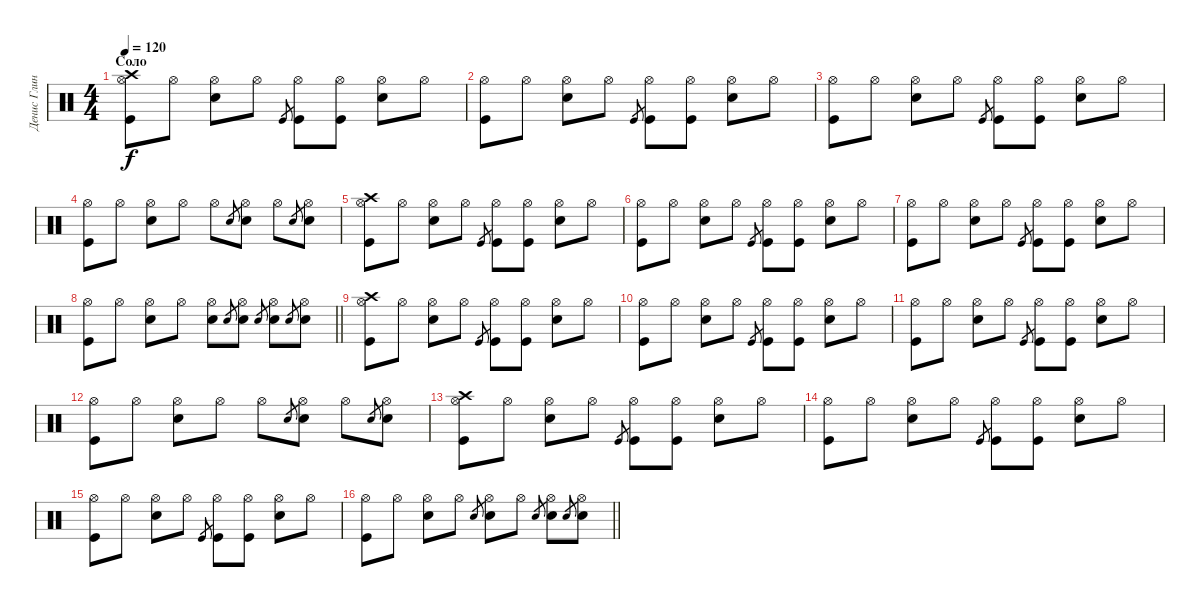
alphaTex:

\track ("Денис Глинин" "Денис Глин") {instrument percussion}
\staff {score}
\articulation defaults
\ts (4 4)
\section ("" "Соло")
\tempo 120
\clef neutral
\ks c
("Hi-Hat (open)" "Crash high (hit)" "Kick (hit)").8{dy f} "Hi-Hat (open)".8 ("Hi-Hat (open)" "Snare (hit) 2").8 "Hi-Hat (open)".8 "Kick (hit)".8{gr} ("Hi-Hat (open)" "Kick (hit)").8 ("Hi-Hat (open)" "Kick (hit)").8 ("Hi-Hat (open)" "Snare (hit) 2").8 "Hi-Hat (open)".8 |
("Hi-Hat (open)" "Kick (hit)").8 "Hi-Hat (open)".8 ("Hi-Hat (open)" "Snare (hit) 2").8 "Hi-Hat (open)".8 "Kick (hit)".8{gr} ("Hi-Hat (open)" "Kick (hit)").8 ("Hi-Hat (open)" "Kick (hit)").8 ("Hi-Hat (open)" "Snare (hit) 2").8 "Hi-Hat (open)".8 |
("Hi-Hat (open)" "Kick (hit)").8 "Hi-Hat (open)".8 ("Hi-Hat (open)" "Snare (hit) 2").8 "Hi-Hat (open)".8 "Kick (hit)".8{gr} ("Hi-Hat (open)" "Kick (hit)").8 ("Hi-Hat (open)" "Kick (hit)").8 ("Hi-Hat (open)" "Snare (hit) 2").8 "Hi-Hat (open)".8 |
("Hi-Hat (open)" "Kick (hit)").8 "Hi-Hat (open)".8 ("Hi-Hat (open)" "Snare (hit) 2").8 "Hi-Hat (open)".8 "Hi-Hat (open)".8 "Snare (hit) 2".8{gr} ("Hi-Hat (open)" "Snare (hit) 2").8 "Hi-Hat (open)".8 "Snare (hit) 2".8{gr} ("Hi-Hat (open)" "Snare (hit) 2").8 |
("Hi-Hat (open)" "Crash high (hit)" "Kick (hit)").8 "Hi-Hat (open)".8 ("Hi-Hat (open)" "Snare (hit) 2").8 "Hi-Hat (open)".8 "Kick (hit)".8{gr} ("Hi-Hat (open)" "Kick (hit)").8 ("Hi-Hat (open)" "Kick (hit)").8 ("Hi-Hat (open)" "Snare (hit) 2").8 "Hi-Hat (open)".8 |
("Hi-Hat (open)" "Kick (hit)").8 "Hi-Hat (open)".8 ("Hi-Hat (open)" "Snare (hit) 2").8 "Hi-Hat (open)".8 "Kick (hit)".8{gr} ("Hi-Hat (open)" "Kick (hit)").8 ("Hi-Hat (open)" "Kick (hit)").8 ("Hi-Hat (open)" "Snare (hit) 2").8 "Hi-Hat (open)".8 |
("Hi-Hat (open)" "Kick (hit)").8 "Hi-Hat (open)".8 ("Hi-Hat (open)" "Snare (hit) 2").8 "Hi-Hat (open)".8 "Kick (hit)".8{gr} ("Hi-Hat (open)" "Kick (hit)").8 ("Hi-Hat (open)" "Kick (hit)").8 ("Hi-Hat (open)" "Snare (hit) 2").8 "Hi-Hat (open)".8 |
\barLineRight lightlight
("Hi-Hat (open)" "Kick (hit)").8 "Hi-Hat (open)".8 ("Hi-Hat (open)" "Snare (hit) 2").8 "Hi-Hat (open)".8 ("Hi-Hat (open)" "Snare (hit) 2").8 "Snare (hit) 2".8{gr} ("Hi-Hat (open)" "Snare (hit) 2").8 "Snare (hit) 2".8{gr} ("Hi-Hat (open)" "Snare (hit) 2").8 "Snare (hit) 2".8{gr} ("Hi-Hat (open)" "Snare (hit) 2").8 |
("Hi-Hat (open)" "Crash high (hit)" "Kick (hit)").8 "Hi-Hat (open)".8 ("Hi-Hat (open)" "Snare (hit) 2").8 "Hi-Hat (open)".8 "Kick (hit)".8{gr} ("Hi-Hat (open)" "Kick (hit)").8 ("Hi-Hat (open)" "Kick (hit)").8 ("Hi-Hat (open)" "Snare (hit) 2").8 "Hi-Hat (open)".8 |
("Hi-Hat (open)" "Kick (hit)").8 "Hi-Hat (open)".8 ("Hi-Hat (open)" "Snare (hit) 2").8 "Hi-Hat (open)".8 "Kick (hit)".8{gr} ("Hi-Hat (open)" "Kick (hit)").8 ("Hi-Hat (open)" "Kick (hit)").8 ("Hi-Hat (open)" "Snare (hit) 2").8 "Hi-Hat (open)".8 |
("Hi-Hat (open)" "Kick (hit)").8 "Hi-Hat (open)".8 ("Hi-Hat (open)" "Snare (hit) 2").8 "Hi-Hat (open)".8 "Kick (hit)".8{gr} ("Hi-Hat (open)" "Kick (hit)").8 ("Hi-Hat (open)" "Kick (hit)").8 ("Hi-Hat (open)" "Snare (hit) 2").8 "Hi-Hat (open)".8 |
("Hi-Hat (open)" "Kick (hit)").8 "Hi-Hat (open)".8 ("Hi-Hat (open)" "Snare (hit) 2").8 "Hi-Hat (open)".8 "Hi-Hat (open)".8 "Snare (hit) 2".8{gr} ("Hi-Hat (open)" "Snare (hit) 2").8 "Hi-Hat (open)".8 "Snare (hit) 2".8{gr} ("Hi-Hat (open)" "Snare (hit) 2").8 |
("Hi-Hat (open)" "Crash high (hit)" "Kick (hit)").8 "Hi-Hat (open)".8 ("Hi-Hat (open)" "Snare (hit) 2").8 "Hi-Hat (open)".8 "Kick (hit)".8{gr} ("Hi-Hat (open)" "Kick (hit)").8 ("Hi-Hat (open)" "Kick (hit)").8 ("Hi-Hat (open)" "Snare (hit) 2").8 "Hi-Hat (open)".8 |
("Hi-Hat (open)" "Kick (hit)").8 "Hi-Hat (open)".8 ("Hi-Hat (open)" "Snare (hit) 2").8 "Hi-Hat (open)".8 "Kick (hit)".8{gr} ("Hi-Hat (open)" "Kick (hit)").8 ("Hi-Hat (open)" "Kick (hit)").8 ("Hi-Hat (open)" "Snare (hit) 2").8 "Hi-Hat (open)".8 |
("Hi-Hat (open)" "Kick (hit)").8 "Hi-Hat (open)".8 ("Hi-Hat (open)" "Snare (hit) 2").8 "Hi-Hat (open)".8 "Kick (hit)".8{gr} ("Hi-Hat (open)" "Kick (hit)").8 ("Hi-Hat (open)" "Kick (hit)").8 ("Hi-Hat (open)" "Snare (hit) 2").8 "Hi-Hat (open)".8 |
\barLineRight lightlight
("Hi-Hat (open)" "Kick (hit)").8 "Hi-Hat (open)".8 ("Hi-Hat (open)" "Snare (hit) 2").8 "Hi-Hat (open)".8 "Snare (hit) 2".8{gr} ("Hi-Hat (open)" "Snare (hit) 2").8 "Hi-Hat (open)".8 "Snare (hit) 2".8{gr} ("Hi-Hat (open)" "Snare (hit) 2").8 "Snare (hit) 2".8{gr} ("Hi-Hat (open)" "Snare (hit) 2").8
